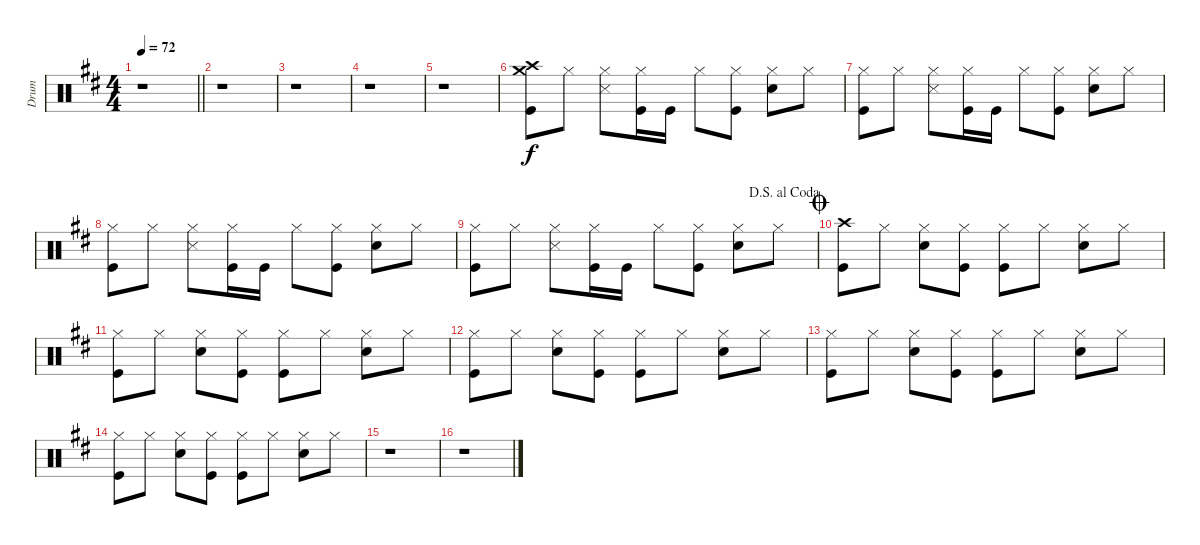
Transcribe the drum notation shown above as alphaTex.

\track ("Drum" "Drum") {instrument percussion}
\staff {score}
\articulation defaults
\ts (4 4)
\tempo 72
\clef neutral
\barLineRight lightlight
\ks d
r.1{dy f} |
r.1 |
r.1 |
r.1 |
r.1 |
("Crash high (hit)" "Crash medium (hit)" "Kick (hit)").8 "Hi-Hat (closed)".8 ("Hi-Hat (closed)" "Snare (side stick) 3").8 ("Hi-Hat (closed)" "Kick (hit)").16 "Kick (hit)".16 "Hi-Hat (closed)".8 ("Hi-Hat (closed)" "Kick (hit)").8 ("Hi-Hat (closed)" "Snare (hit) 2").8 "Hi-Hat (closed)".8 |
("Hi-Hat (closed)" "Kick (hit)").8 "Hi-Hat (closed)".8 ("Hi-Hat (closed)" "Snare (side stick) 3").8 ("Hi-Hat (closed)" "Kick (hit)").16 "Kick (hit)".16 "Hi-Hat (closed)".8 ("Hi-Hat (closed)" "Kick (hit)").8 ("Hi-Hat (closed)" "Snare (hit) 2").8 "Hi-Hat (closed)".8 |
("Hi-Hat (closed)" "Kick (hit)").8 "Hi-Hat (closed)".8 ("Hi-Hat (closed)" "Snare (side stick) 3").8 ("Hi-Hat (closed)" "Kick (hit)").16 "Kick (hit)".16 "Hi-Hat (closed)".8 ("Hi-Hat (closed)" "Kick (hit)").8 ("Hi-Hat (closed)" "Snare (hit) 2").8 "Hi-Hat (closed)".8 |
\jump dalsegnoalcoda
("Hi-Hat (closed)" "Kick (hit)").8 "Hi-Hat (closed)".8 ("Hi-Hat (closed)" "Snare (side stick) 3").8 ("Hi-Hat (closed)" "Kick (hit)").16 "Kick (hit)".16 "Hi-Hat (closed)".8 ("Hi-Hat (closed)" "Kick (hit)").8 ("Hi-Hat (closed)" "Snare (hit) 2").8 "Hi-Hat (closed)".8 |
\jump coda
("Crash high (hit)" "Kick (hit)").8 "Hi-Hat (closed)".8 ("Hi-Hat (closed)" "Snare (hit) 2").8 ("Hi-Hat (closed)" "Kick (hit)").8 ("Hi-Hat (closed)" "Kick (hit)").8 "Hi-Hat (closed)".8 ("Hi-Hat (closed)" "Snare (hit) 2").8 "Hi-Hat (closed)".8 |
("Hi-Hat (closed)" "Kick (hit)").8 "Hi-Hat (closed)".8 ("Hi-Hat (closed)" "Snare (hit) 2").8 ("Hi-Hat (closed)" "Kick (hit)").8 ("Hi-Hat (closed)" "Kick (hit)").8 "Hi-Hat (closed)".8 ("Hi-Hat (closed)" "Snare (hit) 2").8 "Hi-Hat (closed)".8 |
("Hi-Hat (closed)" "Kick (hit)").8 "Hi-Hat (closed)".8 ("Hi-Hat (closed)" "Snare (hit) 2").8 ("Hi-Hat (closed)" "Kick (hit)").8 ("Hi-Hat (closed)" "Kick (hit)").8 "Hi-Hat (closed)".8 ("Hi-Hat (closed)" "Snare (hit) 2").8 "Hi-Hat (closed)".8 |
("Hi-Hat (closed)" "Kick (hit)").8 "Hi-Hat (closed)".8 ("Hi-Hat (closed)" "Snare (hit) 2").8 ("Hi-Hat (closed)" "Kick (hit)").8 ("Hi-Hat (closed)" "Kick (hit)").8 "Hi-Hat (closed)".8 ("Hi-Hat (closed)" "Snare (hit) 2").8 "Hi-Hat (closed)".8 |
("Hi-Hat (closed)" "Kick (hit)").8 "Hi-Hat (closed)".8 ("Hi-Hat (closed)" "Snare (hit) 2").8 ("Hi-Hat (closed)" "Kick (hit)").8 ("Hi-Hat (closed)" "Kick (hit)").8 "Hi-Hat (closed)".8 ("Hi-Hat (closed)" "Snare (hit) 2").8 "Hi-Hat (closed)".8 |
r.1 |
r.1
